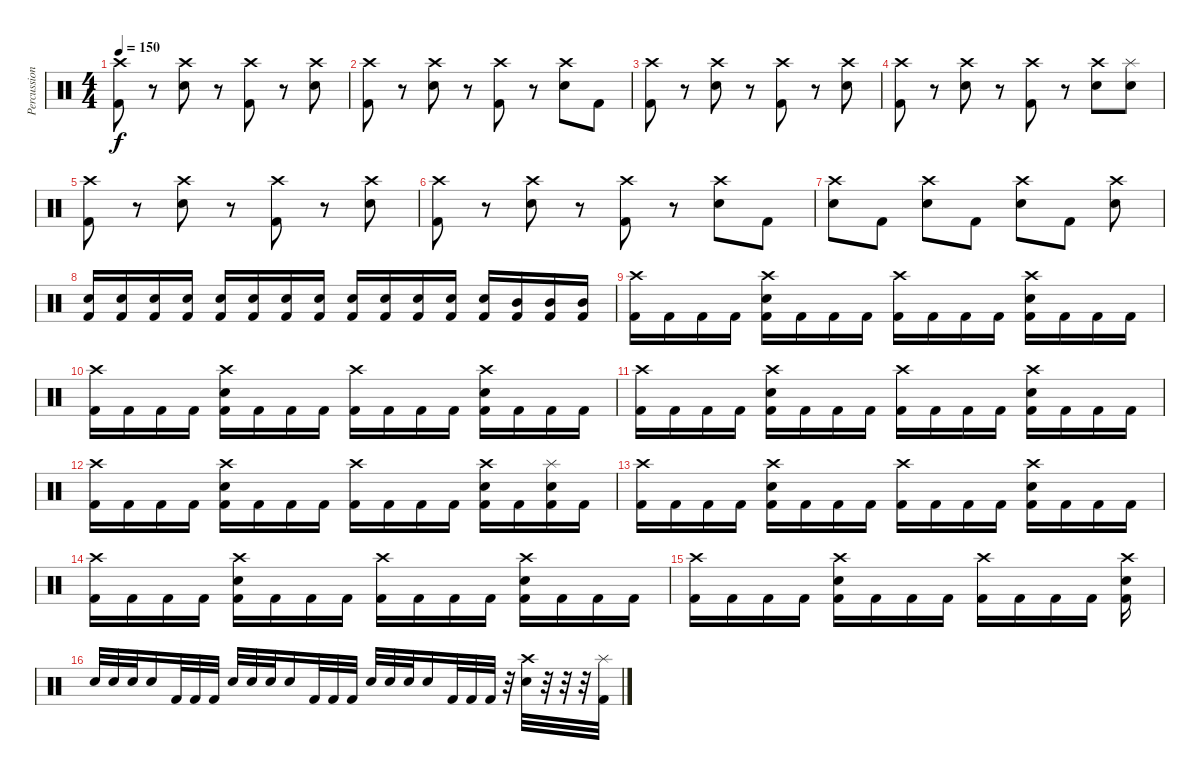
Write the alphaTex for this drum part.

\track ("Percussion" "Percussion") {instrument percussion}
\staff {score}
\articulation defaults
\ts (4 4)
\tempo 150
\clef neutral
\ks c
("Crash high (hit)" "Kick (hit) 2").8{dy f} r.8 ("Crash high (hit)" "Snare (hit) 2").8 r.8 ("Crash high (hit)" "Kick (hit) 2").8 r.8 ("Crash high (hit)" "Snare (hit) 2").8 |
("Crash high (hit)" "Kick (hit) 2").8 r.8 ("Crash high (hit)" "Snare (hit) 2").8 r.8 ("Crash high (hit)" "Kick (hit) 2").8 r.8 ("Crash high (hit)" "Snare (hit) 2").8 "Kick (hit) 2".8 |
("Crash high (hit)" "Kick (hit) 2").8 r.8 ("Crash high (hit)" "Snare (hit) 2").8 r.8 ("Crash high (hit)" "Kick (hit) 2").8 r.8 ("Crash high (hit)" "Snare (hit) 2").8 |
("Crash high (hit)" "Kick (hit) 2").8 r.8 ("Crash high (hit)" "Snare (hit) 2").8 r.8 ("Crash high (hit)" "Kick (hit) 2").8 r.8 ("Crash high (hit)" "Snare (hit) 2").8 ("Splash (hit)" "Snare (hit) 2").8 |
("Crash high (hit)" "Kick (hit) 2").8 r.8 ("Crash high (hit)" "Snare (hit) 2").8 r.8 ("Crash high (hit)" "Kick (hit) 2").8 r.8 ("Crash high (hit)" "Snare (hit) 2").8 |
("Crash high (hit)" "Kick (hit) 2").8 r.8 ("Crash high (hit)" "Snare (hit) 2").8 r.8 ("Crash high (hit)" "Kick (hit) 2").8 r.8 ("Crash high (hit)" "Snare (hit) 2").8 "Kick (hit) 2".8 |
("Crash high (hit)" "Snare (hit) 2").8 "Kick (hit) 2".8 ("Crash high (hit)" "Snare (hit) 2").8 "Kick (hit) 2".8 ("Crash high (hit)" "Snare (hit) 2").8 "Kick (hit) 2".8 ("Crash high (hit)" "Snare (hit) 2").8 |
("Snare (hit) 2" "Kick (hit) 2").16 ("Snare (hit) 2" "Kick (hit) 2").16 ("Snare (hit) 2" "Kick (hit) 2").16 ("Snare (hit) 2" "Kick (hit) 2").16 ("Snare (hit) 2" "Kick (hit) 2").16 ("Snare (hit) 2" "Kick (hit) 2").16 ("Snare (hit) 2" "Kick (hit) 2").16 ("Snare (hit) 2" "Kick (hit) 2").16 ("Snare (hit) 2" "Kick (hit) 2").16 ("Snare (hit) 2" "Kick (hit) 2").16 ("Snare (hit) 2" "Kick (hit) 2").16 ("Snare (hit) 2" "Kick (hit) 2").16 ("Snare (hit) 2" "Kick (hit) 2").16 ("Mid Tom (hit)" "Kick (hit) 2").16 ("Mid Tom (hit)" "Kick (hit) 2").16 ("Mid Tom (hit)" "Kick (hit) 2").16 |
("Crash high (hit)" "Kick (hit) 2").16 "Kick (hit) 2".16 "Kick (hit) 2".16 "Kick (hit) 2".16 ("Crash high (hit)" "Snare (hit) 2" "Kick (hit) 2").16 "Kick (hit) 2".16 "Kick (hit) 2".16 "Kick (hit) 2".16 ("Crash high (hit)" "Kick (hit) 2").16 "Kick (hit) 2".16 "Kick (hit) 2".16 "Kick (hit) 2".16 ("Crash high (hit)" "Snare (hit) 2" "Kick (hit) 2").16 "Kick (hit) 2".16 "Kick (hit) 2".16 "Kick (hit) 2".16 |
("Crash high (hit)" "Kick (hit) 2").16 "Kick (hit) 2".16 "Kick (hit) 2".16 "Kick (hit) 2".16 ("Crash high (hit)" "Snare (hit) 2" "Kick (hit) 2").16 "Kick (hit) 2".16 "Kick (hit) 2".16 "Kick (hit) 2".16 ("Crash high (hit)" "Kick (hit) 2").16 "Kick (hit) 2".16 "Kick (hit) 2".16 "Kick (hit) 2".16 ("Crash high (hit)" "Snare (hit) 2" "Kick (hit) 2").16 "Kick (hit) 2".16 "Kick (hit) 2".16 "Kick (hit) 2".16 |
("Crash high (hit)" "Kick (hit) 2").16 "Kick (hit) 2".16 "Kick (hit) 2".16 "Kick (hit) 2".16 ("Crash high (hit)" "Snare (hit) 2" "Kick (hit) 2").16 "Kick (hit) 2".16 "Kick (hit) 2".16 "Kick (hit) 2".16 ("Crash high (hit)" "Kick (hit) 2").16 "Kick (hit) 2".16 "Kick (hit) 2".16 "Kick (hit) 2".16 ("Crash high (hit)" "Snare (hit) 2" "Kick (hit) 2").16 "Kick (hit) 2".16 "Kick (hit) 2".16 "Kick (hit) 2".16 |
("Crash high (hit)" "Kick (hit) 2").16 "Kick (hit) 2".16 "Kick (hit) 2".16 "Kick (hit) 2".16 ("Crash high (hit)" "Snare (hit) 2" "Kick (hit) 2").16 "Kick (hit) 2".16 "Kick (hit) 2".16 "Kick (hit) 2".16 ("Crash high (hit)" "Kick (hit) 2").16 "Kick (hit) 2".16 "Kick (hit) 2".16 "Kick (hit) 2".16 ("Crash high (hit)" "Snare (hit) 2" "Kick (hit) 2").16 "Kick (hit) 2".16 ("Splash (hit)" "Snare (hit) 2" "Kick (hit) 2").16 "Kick (hit) 2".16 |
("Crash high (hit)" "Kick (hit) 2").16 "Kick (hit) 2".16 "Kick (hit) 2".16 "Kick (hit) 2".16 ("Crash high (hit)" "Snare (hit) 2" "Kick (hit) 2").16 "Kick (hit) 2".16 "Kick (hit) 2".16 "Kick (hit) 2".16 ("Crash high (hit)" "Kick (hit) 2").16 "Kick (hit) 2".16 "Kick (hit) 2".16 "Kick (hit) 2".16 ("Crash high (hit)" "Snare (hit) 2" "Kick (hit) 2").16 "Kick (hit) 2".16 "Kick (hit) 2".16 "Kick (hit) 2".16 |
("Crash high (hit)" "Kick (hit) 2").16 "Kick (hit) 2".16 "Kick (hit) 2".16 "Kick (hit) 2".16 ("Crash high (hit)" "Snare (hit) 2" "Kick (hit) 2").16 "Kick (hit) 2".16 "Kick (hit) 2".16 "Kick (hit) 2".16 ("Crash high (hit)" "Kick (hit) 2").16 "Kick (hit) 2".16 "Kick (hit) 2".16 "Kick (hit) 2".16 ("Crash high (hit)" "Snare (hit) 2" "Kick (hit) 2").16 "Kick (hit) 2".16 "Kick (hit) 2".16 "Kick (hit) 2".16 |
("Crash high (hit)" "Kick (hit) 2").16 "Kick (hit) 2".16 "Kick (hit) 2".16 "Kick (hit) 2".16 ("Crash high (hit)" "Snare (hit) 2" "Kick (hit) 2").16 "Kick (hit) 2".16 "Kick (hit) 2".16 "Kick (hit) 2".16 ("Crash high (hit)" "Kick (hit) 2").16 "Kick (hit) 2".16 "Kick (hit) 2".16 "Kick (hit) 2".16 ("Crash high (hit)" "Snare (hit) 2" "Kick (hit) 2").16 |
"Snare (hit) 2".32 "Snare (hit) 2".32 "Snare (hit) 2".32 "Snare (hit) 2".16 "Kick (hit) 2".32 "Kick (hit) 2".32 "Kick (hit) 2".32 "Snare (hit) 2".32 "Snare (hit) 2".32 "Snare (hit) 2".32 "Snare (hit) 2".16 "Kick (hit) 2".32 "Kick (hit) 2".32 "Kick (hit) 2".32 "Snare (hit) 2".32 "Snare (hit) 2".32 "Snare (hit) 2".32 "Snare (hit) 2".16 "Kick (hit) 2".32 "Kick (hit) 2".32 "Kick (hit) 2".32 r.32 ("Crash high (hit)" "Snare (hit) 2").32 r.32 r.32 r.32 ("Splash (hit)" "Kick (hit) 2").32
